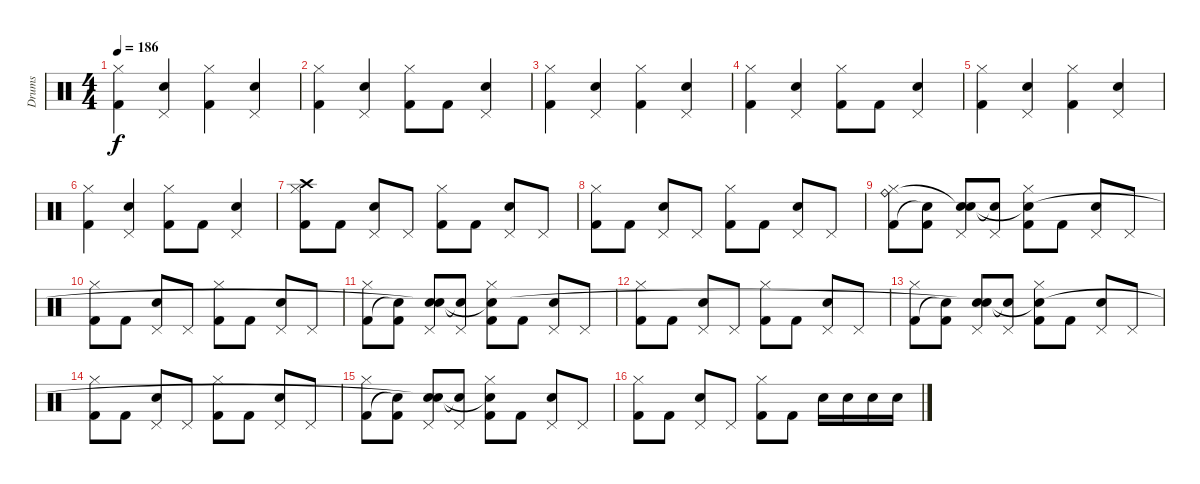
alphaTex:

\track ("Drums" "Drums") {instrument percussion}
\staff {score}
\articulation defaults
\ts (4 4)
\tempo 186
\clef neutral
\ks c
("Hi-Hat (closed)" "Kick (hit) 2").4{dy f} ("Pedal Hi-Hat (hit)" "Electric Snare (hit)").4 ("Hi-Hat (closed)" "Kick (hit) 2").4 ("Pedal Hi-Hat (hit)" "Electric Snare (hit)").4 |
("Hi-Hat (closed)" "Kick (hit) 2").4 ("Pedal Hi-Hat (hit)" "Electric Snare (hit)").4 ("Hi-Hat (closed)" "Kick (hit) 2").8 "Kick (hit) 2".8 ("Pedal Hi-Hat (hit)" "Electric Snare (hit)").4 |
("Hi-Hat (closed)" "Kick (hit) 2").4 ("Pedal Hi-Hat (hit)" "Electric Snare (hit)").4 ("Hi-Hat (closed)" "Kick (hit) 2").4 ("Pedal Hi-Hat (hit)" "Electric Snare (hit)").4 |
("Hi-Hat (closed)" "Kick (hit) 2").4 ("Pedal Hi-Hat (hit)" "Electric Snare (hit)").4 ("Hi-Hat (closed)" "Kick (hit) 2").8 "Kick (hit) 2".8 ("Pedal Hi-Hat (hit)" "Electric Snare (hit)").4 |
("Hi-Hat (closed)" "Kick (hit) 2").4 ("Pedal Hi-Hat (hit)" "Electric Snare (hit)").4 ("Hi-Hat (closed)" "Kick (hit) 2").4 ("Pedal Hi-Hat (hit)" "Electric Snare (hit)").4 |
("Hi-Hat (closed)" "Kick (hit) 2").4 ("Pedal Hi-Hat (hit)" "Electric Snare (hit)").4 ("Hi-Hat (closed)" "Kick (hit) 2").8 "Kick (hit) 2".8 ("Pedal Hi-Hat (hit)" "Electric Snare (hit)").4 |
("Hi-Hat (closed)" "Kick (hit) 2" "Crash high (hit)").8 "Kick (hit) 2".8 ("Pedal Hi-Hat (hit)" "Electric Snare (hit)").8 "Pedal Hi-Hat (hit)".8 ("Hi-Hat (closed)" "Kick (hit) 2").8 "Kick (hit) 2".8 ("Pedal Hi-Hat (hit)" "Electric Snare (hit)").8 "Pedal Hi-Hat (hit)".8 |
("Hi-Hat (closed)" "Kick (hit) 2").8 "Kick (hit) 2".8 ("Pedal Hi-Hat (hit)" "Electric Snare (hit)").8 "Pedal Hi-Hat (hit)".8 ("Hi-Hat (closed)" "Kick (hit) 2").8 "Kick (hit) 2".8 ("Pedal Hi-Hat (hit)" "Electric Snare (hit)").8 "Pedal Hi-Hat (hit)".8 |
("Hi-Hat (closed)" "Kick (hit) 2" "Ride (bell)").8 ("Kick (hit) 2" "Snare (hit)"{t}).8 ("Pedal Hi-Hat (hit)" "Electric Snare (hit)" "Snare (hit)"{t}).8 ("Pedal Hi-Hat (hit)" "Snare (hit)"{t}).8 ("Hi-Hat (closed)" "Kick (hit) 2" "Snare (hit)"{t}).8 "Kick (hit) 2".8 ("Pedal Hi-Hat (hit)" "Electric Snare (hit)").8 "Pedal Hi-Hat (hit)".8 |
("Hi-Hat (closed)" "Kick (hit) 2").8 "Kick (hit) 2".8 ("Pedal Hi-Hat (hit)" "Electric Snare (hit)").8 "Pedal Hi-Hat (hit)".8 ("Hi-Hat (closed)" "Kick (hit) 2").8 "Kick (hit) 2".8 ("Pedal Hi-Hat (hit)" "Electric Snare (hit)").8 "Pedal Hi-Hat (hit)".8 |
("Hi-Hat (closed)" "Kick (hit) 2").8 ("Kick (hit) 2" "Snare (hit)"{t}).8 ("Pedal Hi-Hat (hit)" "Electric Snare (hit)" "Snare (hit)"{t}).8 ("Pedal Hi-Hat (hit)" "Snare (hit)"{t}).8 ("Hi-Hat (closed)" "Kick (hit) 2" "Snare (hit)"{t}).8 "Kick (hit) 2".8 ("Pedal Hi-Hat (hit)" "Electric Snare (hit)").8 "Pedal Hi-Hat (hit)".8 |
("Hi-Hat (closed)" "Kick (hit) 2").8 "Kick (hit) 2".8 ("Pedal Hi-Hat (hit)" "Electric Snare (hit)").8 "Pedal Hi-Hat (hit)".8 ("Hi-Hat (closed)" "Kick (hit) 2").8 "Kick (hit) 2".8 ("Pedal Hi-Hat (hit)" "Electric Snare (hit)").8 "Pedal Hi-Hat (hit)".8 |
("Hi-Hat (closed)" "Kick (hit) 2").8 ("Kick (hit) 2" "Snare (hit)"{t}).8 ("Pedal Hi-Hat (hit)" "Electric Snare (hit)" "Snare (hit)"{t}).8 ("Pedal Hi-Hat (hit)" "Snare (hit)"{t}).8 ("Hi-Hat (closed)" "Kick (hit) 2" "Snare (hit)"{t}).8 "Kick (hit) 2".8 ("Pedal Hi-Hat (hit)" "Electric Snare (hit)").8 "Pedal Hi-Hat (hit)".8 |
("Hi-Hat (closed)" "Kick (hit) 2").8 "Kick (hit) 2".8 ("Pedal Hi-Hat (hit)" "Electric Snare (hit)").8 "Pedal Hi-Hat (hit)".8 ("Hi-Hat (closed)" "Kick (hit) 2").8 "Kick (hit) 2".8 ("Pedal Hi-Hat (hit)" "Electric Snare (hit)").8 "Pedal Hi-Hat (hit)".8 |
("Hi-Hat (closed)" "Kick (hit) 2").8 ("Kick (hit) 2" "Snare (hit)"{t}).8 ("Pedal Hi-Hat (hit)" "Electric Snare (hit)" "Snare (hit)"{t}).8 ("Pedal Hi-Hat (hit)" "Snare (hit)"{t}).8 ("Hi-Hat (closed)" "Kick (hit) 2" "Snare (hit)"{t}).8 "Kick (hit) 2".8 ("Pedal Hi-Hat (hit)" "Electric Snare (hit)").8 "Pedal Hi-Hat (hit)".8 |
("Hi-Hat (closed)" "Kick (hit) 2").8 "Kick (hit) 2".8 ("Pedal Hi-Hat (hit)" "Electric Snare (hit)").8 "Pedal Hi-Hat (hit)".8 ("Hi-Hat (closed)" "Kick (hit) 2").8 "Kick (hit) 2".8 "Electric Snare (hit)".16 "Electric Snare (hit)".16 "Electric Snare (hit)".16 "Electric Snare (hit)".16
